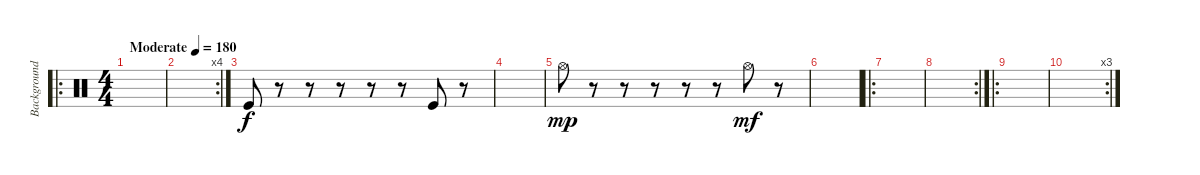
\track ("Backgrounds" "Background") {instrument percussion}
\staff {score}
\articulation defaults
\ro
\ts (4 4)
\tempo (180 "Moderate")
\clef neutral
\ks c
|
\rc 4
|
"Kick (hit)".8 r.8 r.8 r.8 r.8 r.8 "Kick (hit)".8 r.8 |
|
"Hi-Hat (open)".8{dy mp} r.8 r.8 r.8 r.8 r.8 "Hi-Hat (open)".8{dy mf} r.8 |
|
\ro
|
\rc 2
|
\ro
|
\rc 3
